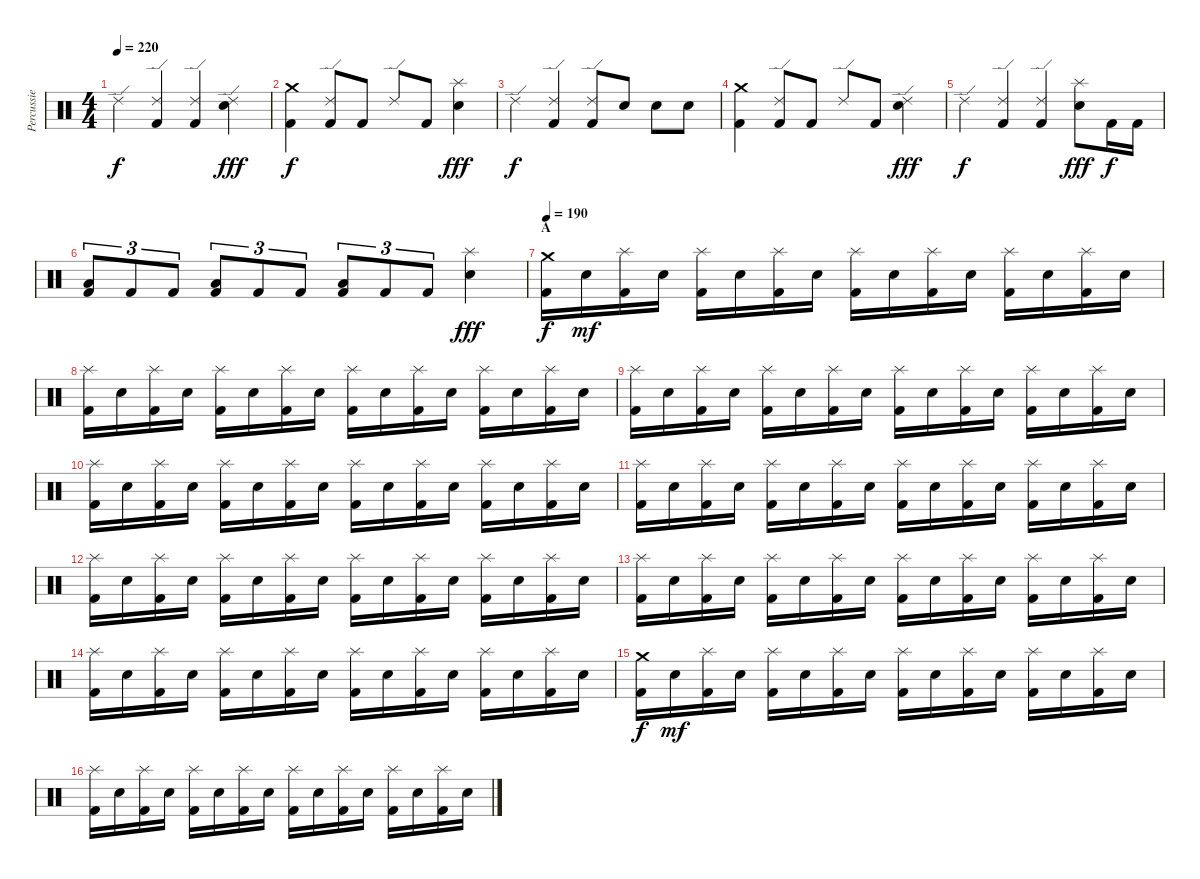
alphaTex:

\track ("Percussie" "Percussie") {instrument percussion}
\staff {score}
\articulation defaults
\ts (4 4)
\tempo 220
\clef neutral
\ks c "Ride (edge) 2".4{dy f}
("Ride (edge) 2" "Kick (hit) 2").4 ("Ride (edge) 2" "Kick (hit) 2").4 ("Ride (edge) 2" "Electric Snare (hit)").4{dy fff} |
("Crash medium (hit)" "Kick (hit) 2").4{dy f} ("Ride (edge) 2" "Kick (hit) 2").8 "Kick (hit) 2".8 "Ride (edge) 2".8 "Kick (hit) 2".8 ("Splash (hit)" "Electric Snare (hit)").4{dy fff} |
"Ride (edge) 2".4{dy f} ("Ride (edge) 2" "Kick (hit) 2").4 ("Ride (edge) 2" "Kick (hit) 2").8 "Electric Snare (hit)".8 "Electric Snare (hit)".8 "Electric Snare (hit)".8 |
("Crash medium (hit)" "Kick (hit) 2").4 ("Ride (edge) 2" "Kick (hit) 2").8 "Kick (hit) 2".8 "Ride (edge) 2".8 "Kick (hit) 2".8 ("Ride (edge) 2" "Electric Snare (hit)").4{dy fff} |
"Ride (edge) 2".4{dy f} ("Ride (edge) 2" "Kick (hit) 2").4 ("Ride (edge) 2" "Kick (hit) 2").4 ("Splash (hit)" "Electric Snare (hit)").8{dy fff} "Kick (hit) 2".16{dy f} "Kick (hit) 2".16 |
("Low Tom (hit)" "Kick (hit) 2").8{tu (3 2)} "Kick (hit) 2".8{tu (3 2)} "Kick (hit) 2".8{tu (3 2)} ("Low Tom (hit)" "Kick (hit) 2").8{tu (3 2)} "Kick (hit) 2".8{tu (3 2)} "Kick (hit) 2".8{tu (3 2)} ("Low Tom (hit)" "Kick (hit) 2").8{tu (3 2)} "Kick (hit) 2".8{tu (3 2)} "Kick (hit) 2".8{tu (3 2)} ("Splash (hit)" "Electric Snare (hit)").4{dy fff} |
\section ("" "A")
\tempo 190
("Crash medium (hit)" "Kick (hit) 2").16{dy f} "Electric Snare (hit)".16{dy mf} ("Splash (hit)" "Kick (hit) 2").16 "Electric Snare (hit)".16 ("Splash (hit)" "Kick (hit) 2").16 "Electric Snare (hit)".16 ("Splash (hit)" "Kick (hit) 2").16 "Electric Snare (hit)".16 ("Splash (hit)" "Kick (hit) 2").16 "Electric Snare (hit)".16 ("Splash (hit)" "Kick (hit) 2").16 "Electric Snare (hit)".16 ("Splash (hit)" "Kick (hit) 2").16 "Electric Snare (hit)".16 ("Splash (hit)" "Kick (hit) 2").16 "Electric Snare (hit)".16 |
("Splash (hit)" "Kick (hit) 2").16 "Electric Snare (hit)".16 ("Splash (hit)" "Kick (hit) 2").16 "Electric Snare (hit)".16 ("Splash (hit)" "Kick (hit) 2").16 "Electric Snare (hit)".16 ("Splash (hit)" "Kick (hit) 2").16 "Electric Snare (hit)".16 ("Splash (hit)" "Kick (hit) 2").16 "Electric Snare (hit)".16 ("Splash (hit)" "Kick (hit) 2").16 "Electric Snare (hit)".16 ("Splash (hit)" "Kick (hit) 2").16 "Electric Snare (hit)".16 ("Splash (hit)" "Kick (hit) 2").16 "Electric Snare (hit)".16 |
("Splash (hit)" "Kick (hit) 2").16 "Electric Snare (hit)".16 ("Splash (hit)" "Kick (hit) 2").16 "Electric Snare (hit)".16 ("Splash (hit)" "Kick (hit) 2").16 "Electric Snare (hit)".16 ("Splash (hit)" "Kick (hit) 2").16 "Electric Snare (hit)".16 ("Splash (hit)" "Kick (hit) 2").16 "Electric Snare (hit)".16 ("Splash (hit)" "Kick (hit) 2").16 "Electric Snare (hit)".16 ("Splash (hit)" "Kick (hit) 2").16 "Electric Snare (hit)".16 ("Splash (hit)" "Kick (hit) 2").16 "Electric Snare (hit)".16 |
("Splash (hit)" "Kick (hit) 2").16 "Electric Snare (hit)".16 ("Splash (hit)" "Kick (hit) 2").16 "Electric Snare (hit)".16 ("Splash (hit)" "Kick (hit) 2").16 "Electric Snare (hit)".16 ("Splash (hit)" "Kick (hit) 2").16 "Electric Snare (hit)".16 ("Splash (hit)" "Kick (hit) 2").16 "Electric Snare (hit)".16 ("Splash (hit)" "Kick (hit) 2").16 "Electric Snare (hit)".16 ("Splash (hit)" "Kick (hit) 2").16 "Electric Snare (hit)".16 ("Splash (hit)" "Kick (hit) 2").16 "Electric Snare (hit)".16 |
("Splash (hit)" "Kick (hit) 2").16 "Electric Snare (hit)".16 ("Splash (hit)" "Kick (hit) 2").16 "Electric Snare (hit)".16 ("Splash (hit)" "Kick (hit) 2").16 "Electric Snare (hit)".16 ("Splash (hit)" "Kick (hit) 2").16 "Electric Snare (hit)".16 ("Splash (hit)" "Kick (hit) 2").16 "Electric Snare (hit)".16 ("Splash (hit)" "Kick (hit) 2").16 "Electric Snare (hit)".16 ("Splash (hit)" "Kick (hit) 2").16 "Electric Snare (hit)".16 ("Splash (hit)" "Kick (hit) 2").16 "Electric Snare (hit)".16 |
("Splash (hit)" "Kick (hit) 2").16 "Electric Snare (hit)".16 ("Splash (hit)" "Kick (hit) 2").16 "Electric Snare (hit)".16 ("Splash (hit)" "Kick (hit) 2").16 "Electric Snare (hit)".16 ("Splash (hit)" "Kick (hit) 2").16 "Electric Snare (hit)".16 ("Splash (hit)" "Kick (hit) 2").16 "Electric Snare (hit)".16 ("Splash (hit)" "Kick (hit) 2").16 "Electric Snare (hit)".16 ("Splash (hit)" "Kick (hit) 2").16 "Electric Snare (hit)".16 ("Splash (hit)" "Kick (hit) 2").16 "Electric Snare (hit)".16 |
("Splash (hit)" "Kick (hit) 2").16 "Electric Snare (hit)".16 ("Splash (hit)" "Kick (hit) 2").16 "Electric Snare (hit)".16 ("Splash (hit)" "Kick (hit) 2").16 "Electric Snare (hit)".16 ("Splash (hit)" "Kick (hit) 2").16 "Electric Snare (hit)".16 ("Splash (hit)" "Kick (hit) 2").16 "Electric Snare (hit)".16 ("Splash (hit)" "Kick (hit) 2").16 "Electric Snare (hit)".16 ("Splash (hit)" "Kick (hit) 2").16 "Electric Snare (hit)".16 ("Splash (hit)" "Kick (hit) 2").16 "Electric Snare (hit)".16 |
("Splash (hit)" "Kick (hit) 2").16 "Electric Snare (hit)".16 ("Splash (hit)" "Kick (hit) 2").16 "Electric Snare (hit)".16 ("Splash (hit)" "Kick (hit) 2").16 "Electric Snare (hit)".16 ("Splash (hit)" "Kick (hit) 2").16 "Electric Snare (hit)".16 ("Splash (hit)" "Kick (hit) 2").16 "Electric Snare (hit)".16 ("Splash (hit)" "Kick (hit) 2").16 "Electric Snare (hit)".16 ("Splash (hit)" "Kick (hit) 2").16 "Electric Snare (hit)".16 ("Splash (hit)" "Kick (hit) 2").16 "Electric Snare (hit)".16 |
("Crash medium (hit)" "Kick (hit) 2").16{dy f} "Electric Snare (hit)".16{dy mf} ("Splash (hit)" "Kick (hit) 2").16 "Electric Snare (hit)".16 ("Splash (hit)" "Kick (hit) 2").16 "Electric Snare (hit)".16 ("Splash (hit)" "Kick (hit) 2").16 "Electric Snare (hit)".16 ("Splash (hit)" "Kick (hit) 2").16 "Electric Snare (hit)".16 ("Splash (hit)" "Kick (hit) 2").16 "Electric Snare (hit)".16 ("Splash (hit)" "Kick (hit) 2").16 "Electric Snare (hit)".16 ("Splash (hit)" "Kick (hit) 2").16 "Electric Snare (hit)".16 |
("Splash (hit)" "Kick (hit) 2").16 "Electric Snare (hit)".16 ("Splash (hit)" "Kick (hit) 2").16 "Electric Snare (hit)".16 ("Splash (hit)" "Kick (hit) 2").16 "Electric Snare (hit)".16 ("Splash (hit)" "Kick (hit) 2").16 "Electric Snare (hit)".16 ("Splash (hit)" "Kick (hit) 2").16 "Electric Snare (hit)".16 ("Splash (hit)" "Kick (hit) 2").16 "Electric Snare (hit)".16 ("Splash (hit)" "Kick (hit) 2").16 "Electric Snare (hit)".16 ("Splash (hit)" "Kick (hit) 2").16 "Electric Snare (hit)".16
